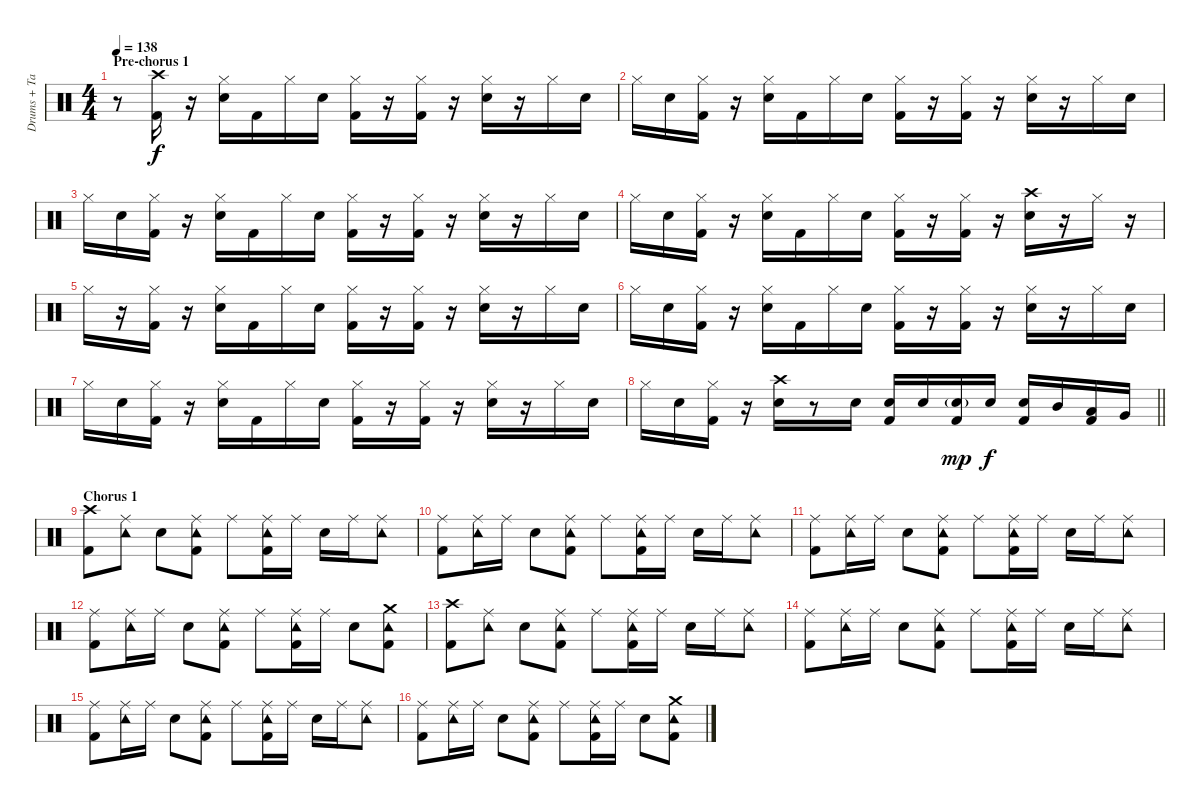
\track ("Drums + Tambourine" "Drums + Ta") {instrument percussion}
\staff {score}
\articulation defaults
\ts (4 4)
\section ("" "Pre-chorus 1")
\tempo 138
\clef neutral
\ks c
r.8{dy f} ("Crash high (hit)" "Kick (hit) 2").16 r.16 ("Hi-Hat (closed)" "Electric Snare (hit)").16 "Kick (hit) 2".16 "Hi-Hat (closed)".16 "Electric Snare (hit)".16 ("Hi-Hat (closed)" "Kick (hit) 2").16 r.16 ("Hi-Hat (closed)" "Kick (hit) 2").16 r.16 ("Hi-Hat (closed)" "Electric Snare (hit)").16 r.16 "Hi-Hat (closed)".16 "Electric Snare (hit)".16 |
"Hi-Hat (closed)".16 "Electric Snare (hit)".16 ("Hi-Hat (closed)" "Kick (hit) 2").16 r.16 ("Hi-Hat (closed)" "Electric Snare (hit)").16 "Kick (hit) 2".16 "Hi-Hat (closed)".16 "Electric Snare (hit)".16 ("Hi-Hat (closed)" "Kick (hit) 2").16 r.16 ("Hi-Hat (closed)" "Kick (hit) 2").16 r.16 ("Hi-Hat (closed)" "Electric Snare (hit)").16 r.16 "Hi-Hat (closed)".16 "Electric Snare (hit)".16 |
"Hi-Hat (closed)".16 "Electric Snare (hit)".16 ("Hi-Hat (closed)" "Kick (hit) 2").16 r.16 ("Hi-Hat (closed)" "Electric Snare (hit)").16 "Kick (hit) 2".16 "Hi-Hat (closed)".16 "Electric Snare (hit)".16 ("Hi-Hat (closed)" "Kick (hit) 2").16 r.16 ("Hi-Hat (closed)" "Kick (hit) 2").16 r.16 ("Hi-Hat (closed)" "Electric Snare (hit)").16 r.16 "Hi-Hat (closed)".16 "Electric Snare (hit)".16 |
"Hi-Hat (closed)".16 "Electric Snare (hit)".16 ("Hi-Hat (closed)" "Kick (hit) 2").16 r.16 ("Hi-Hat (closed)" "Electric Snare (hit)").16 "Kick (hit) 2".16 "Hi-Hat (closed)".16 "Electric Snare (hit)".16 ("Hi-Hat (closed)" "Kick (hit) 2").16 r.16 ("Hi-Hat (closed)" "Kick (hit) 2").16 r.16 ("Crash high (hit)" "Electric Snare (hit)").16 r.16 "Hi-Hat (closed)".16 r.16 |
"Hi-Hat (closed)".16 r.16 ("Hi-Hat (closed)" "Kick (hit) 2").16 r.16 ("Hi-Hat (closed)" "Electric Snare (hit)").16 "Kick (hit) 2".16 "Hi-Hat (closed)".16 "Electric Snare (hit)".16 ("Hi-Hat (closed)" "Kick (hit) 2").16 r.16 ("Hi-Hat (closed)" "Kick (hit) 2").16 r.16 ("Hi-Hat (closed)" "Electric Snare (hit)").16 r.16 "Hi-Hat (closed)".16 "Electric Snare (hit)".16 |
"Hi-Hat (closed)".16 "Electric Snare (hit)".16 ("Hi-Hat (closed)" "Kick (hit) 2").16 r.16 ("Hi-Hat (closed)" "Electric Snare (hit)").16 "Kick (hit) 2".16 "Hi-Hat (closed)".16 "Electric Snare (hit)".16 ("Hi-Hat (closed)" "Kick (hit) 2").16 r.16 ("Hi-Hat (closed)" "Kick (hit) 2").16 r.16 ("Hi-Hat (closed)" "Electric Snare (hit)").16 r.16 "Hi-Hat (closed)".16 "Electric Snare (hit)".16 |
"Hi-Hat (closed)".16 "Electric Snare (hit)".16 ("Hi-Hat (closed)" "Kick (hit) 2").16 r.16 ("Hi-Hat (closed)" "Electric Snare (hit)").16 "Kick (hit) 2".16 "Hi-Hat (closed)".16 "Electric Snare (hit)".16 ("Hi-Hat (closed)" "Kick (hit) 2").16 r.16 ("Hi-Hat (closed)" "Kick (hit) 2").16 r.16 ("Hi-Hat (closed)" "Electric Snare (hit)").16 r.16 "Hi-Hat (closed)".16 "Electric Snare (hit)".16 |
\barLineRight lightlight "Hi-Hat (closed)".16 "Electric Snare (hit)".16
("Hi-Hat (closed)" "Kick (hit) 2").16 r.16 ("Crash high (hit)" "Electric Snare (hit)").16 r.8 "Electric Snare (hit)".16 ("Electric Snare (hit)" "Kick (hit) 2").16 "Electric Snare (hit)".16 ("Electric Snare (hit)"{g} "Kick (hit) 2").16{dy mp} "Electric Snare (hit)".16{dy f} ("Electric Snare (hit)" "Kick (hit) 2").16 "Mid Tom (hit)".16 ("Low Tom (hit)" "Kick (hit) 2").16 "Very Low Tom (hit)".16 |
\section ("" "Chorus 1")
("Crash high (hit)" "Kick (hit) 2").8 ("Tambourine (hit)" "Ride (middle)").8 "Electric Snare (hit)".8 ("Tambourine (hit)" "Ride (middle)" "Kick (hit) 2").8 "Ride (middle)".8 ("Tambourine (hit)" "Ride (middle)" "Kick (hit) 2").16 "Ride (middle)".16 "Electric Snare (hit)".16 "Ride (middle)".16 ("Tambourine (hit)" "Ride (middle)").8 |
("Ride (middle)" "Kick (hit) 2").8 ("Tambourine (hit)" "Ride (middle)").16 "Ride (middle)".16 "Electric Snare (hit)".8 ("Tambourine (hit)" "Ride (middle)" "Kick (hit) 2").8 "Ride (middle)".8 ("Tambourine (hit)" "Ride (middle)" "Kick (hit) 2").16 "Ride (middle)".16 "Electric Snare (hit)".16 "Ride (middle)".16 ("Tambourine (hit)" "Ride (middle)").8 |
("Ride (middle)" "Kick (hit) 2").8 ("Tambourine (hit)" "Ride (middle)").16 "Ride (middle)".16 "Electric Snare (hit)".8 ("Tambourine (hit)" "Ride (middle)" "Kick (hit) 2").8 "Ride (middle)".8 ("Tambourine (hit)" "Ride (middle)" "Kick (hit) 2").16 "Ride (middle)".16 "Electric Snare (hit)".16 "Ride (middle)".16 ("Tambourine (hit)" "Ride (middle)").8 |
("Ride (middle)" "Kick (hit) 2").8 ("Tambourine (hit)" "Ride (middle)").16 "Ride (middle)".16 "Electric Snare (hit)".8 ("Tambourine (hit)" "Ride (middle)" "Kick (hit) 2").8 "Ride (middle)".8 ("Tambourine (hit)" "Ride (middle)" "Kick (hit) 2").16 "Ride (middle)".16 "Electric Snare (hit)".8 ("Tambourine (hit)" "Crash medium (hit)" "Kick (hit) 2").8 |
("Crash high (hit)" "Kick (hit) 2").8 ("Tambourine (hit)" "Ride (middle)").8 "Electric Snare (hit)".8 ("Tambourine (hit)" "Ride (middle)" "Kick (hit) 2").8 "Ride (middle)".8 ("Tambourine (hit)" "Ride (middle)" "Kick (hit) 2").16 "Ride (middle)".16 "Electric Snare (hit)".16 "Ride (middle)".16 ("Tambourine (hit)" "Ride (middle)").8 |
("Ride (middle)" "Kick (hit) 2").8 ("Tambourine (hit)" "Ride (middle)").16 "Ride (middle)".16 "Electric Snare (hit)".8 ("Tambourine (hit)" "Ride (middle)" "Kick (hit) 2").8 "Ride (middle)".8 ("Tambourine (hit)" "Ride (middle)" "Kick (hit) 2").16 "Ride (middle)".16 "Electric Snare (hit)".16 "Ride (middle)".16 ("Tambourine (hit)" "Ride (middle)").8 |
("Ride (middle)" "Kick (hit) 2").8 ("Tambourine (hit)" "Ride (middle)").16 "Ride (middle)".16 "Electric Snare (hit)".8 ("Tambourine (hit)" "Ride (middle)" "Kick (hit) 2").8 "Ride (middle)".8 ("Tambourine (hit)" "Ride (middle)" "Kick (hit) 2").16 "Ride (middle)".16 "Electric Snare (hit)".16 "Ride (middle)".16 ("Tambourine (hit)" "Ride (middle)").8 |
("Ride (middle)" "Kick (hit) 2").8 ("Tambourine (hit)" "Ride (middle)").16 "Ride (middle)".16 "Electric Snare (hit)".8 ("Tambourine (hit)" "Ride (middle)" "Kick (hit) 2").8 "Ride (middle)".8 ("Tambourine (hit)" "Ride (middle)" "Kick (hit) 2").16 "Ride (middle)".16 "Electric Snare (hit)".8 ("Tambourine (hit)" "Crash medium (hit)" "Kick (hit) 2").8
